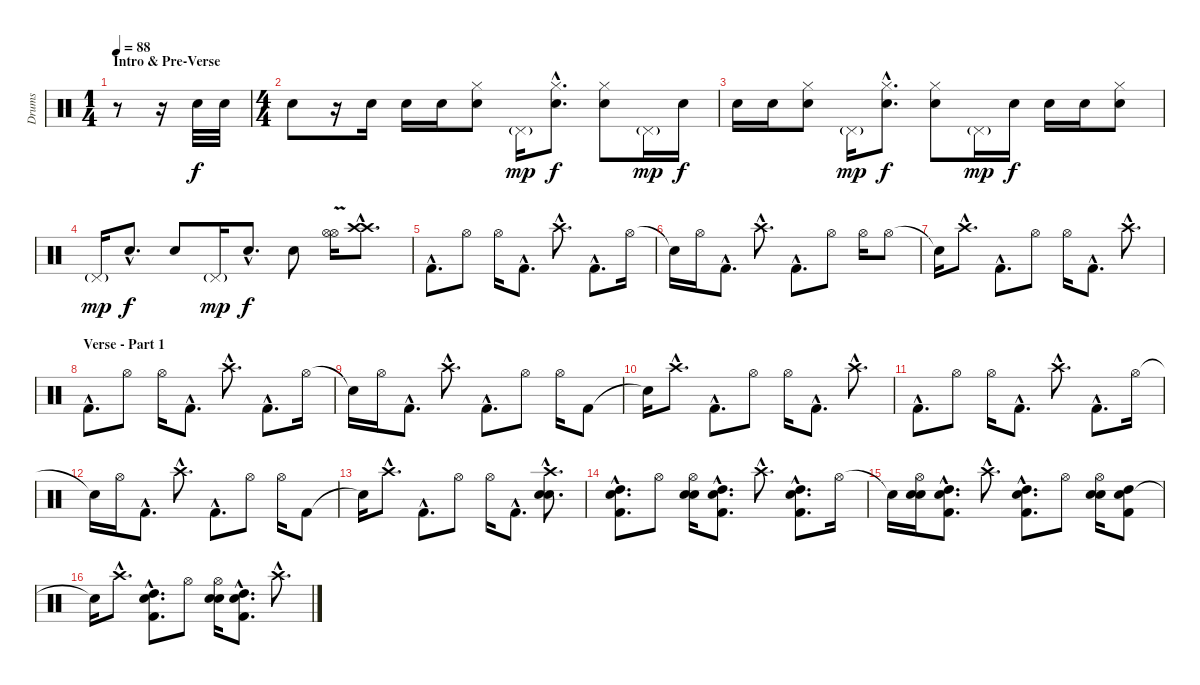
\track ("Drums" "Drums") {instrument percussion}
\staff {score}
\articulation defaults
\ts (1 4)
\section ("" "Intro & Pre-Verse")
\tempo 88
\clef neutral
\ks c
r.8{dy f} r.16 "Electric Snare (hit)".32 "Electric Snare (hit)".32 |
\ts (4 4)
"Electric Snare (hit)".8 r.16 "Electric Snare (hit)".16 "Electric Snare (hit)".16 "Electric Snare (hit)".16 ("Hi-Hat (closed)" "Electric Snare (hit)").8 "Pedal Hi-Hat (hit)"{g}.16{dy mp} ("Hi-Hat (closed)"{hac} "Electric Snare (hit)"{hac}).8{d dy f} ("Hi-Hat (closed)" "Electric Snare (hit)").8 "Pedal Hi-Hat (hit)"{g}.16{dy mp} "Electric Snare (hit)".16{dy f} |
"Electric Snare (hit)".16 "Electric Snare (hit)".16 ("Hi-Hat (closed)" "Electric Snare (hit)").8 "Pedal Hi-Hat (hit)"{g}.16{dy mp} ("Hi-Hat (closed)"{hac} "Electric Snare (hit)"{hac}).8{d dy f} ("Hi-Hat (closed)" "Electric Snare (hit)").8 "Pedal Hi-Hat (hit)"{g}.16{dy mp} "Electric Snare (hit)".16{dy f} "Electric Snare (hit)".16 "Electric Snare (hit)".16 ("Hi-Hat (closed)" "Electric Snare (hit)").8 |
"Pedal Hi-Hat (hit)"{g}.16{dy mp} "Electric Snare (hit)"{hac}.8{d dy f} "Electric Snare (hit)".8 "Pedal Hi-Hat (hit)"{g}.16{dy mp} "Electric Snare (hit)"{hac}.8{d dy f} "Electric Snare (hit)".8 ("Hi-Hat (open)"{v} "Hi-Hat (open)").16 ("Crash high (hit)"{hac} "Crash high (hit)"{hac}).8{d} |
"Kick (hit) 2"{hac}.8{d} "Hi-Hat (open)".8 "Hi-Hat (open)".16 "Kick (hit) 2"{hac}.8{d} "Crash high (hit)"{hac}.8{d} "Kick (hit) 2"{hac}.8{d} "Hi-Hat (open)".16 |
"Snare (hit)"{t}.16 "Hi-Hat (open)".16 "Kick (hit) 2"{hac}.8{d} "Crash high (hit)"{hac}.8{d} "Kick (hit) 2"{hac}.8{d} "Hi-Hat (open)".8 "Hi-Hat (open)".16 "Hi-Hat (open)".8 |
"Snare (hit)"{t}.16 "Crash high (hit)"{hac}.8{d} "Kick (hit) 2"{hac}.8{d} "Hi-Hat (open)".8 "Hi-Hat (open)".16 "Kick (hit) 2"{hac}.8{d} "Crash high (hit)"{hac}.8{d} |
\section ("" "Verse - Part 1")
"Kick (hit) 2"{hac}.8{d} "Hi-Hat (open)".8 "Hi-Hat (open)".16 "Kick (hit) 2"{hac}.8{d} "Crash high (hit)"{hac}.8{d} "Kick (hit) 2"{hac}.8{d} "Hi-Hat (open)".16 |
"Snare (hit)"{t}.16 "Hi-Hat (open)".16 "Kick (hit) 2"{hac}.8{d} "Crash high (hit)"{hac}.8{d} "Kick (hit) 2"{hac}.8{d} "Hi-Hat (open)".8 "Hi-Hat (open)".16 "Kick (hit) 2".8 |
"Snare (hit)"{t}.16 "Crash high (hit)"{hac}.8{d} "Kick (hit) 2"{hac}.8{d} "Hi-Hat (open)".8 "Hi-Hat (open)".16 "Kick (hit) 2"{hac}.8{d} "Crash high (hit)"{hac}.8{d} |
"Kick (hit) 2"{hac}.8{d} "Hi-Hat (open)".8 "Hi-Hat (open)".16 "Kick (hit) 2"{hac}.8{d} "Crash high (hit)"{hac}.8{d} "Kick (hit) 2"{hac}.8{d} "Hi-Hat (open)".16 |
"Snare (hit)"{t}.16 "Hi-Hat (open)".16 "Kick (hit) 2"{hac}.8{d} "Crash high (hit)"{hac}.8{d} "Kick (hit) 2"{hac}.8{d} "Hi-Hat (open)".8 "Hi-Hat (open)".16 "Kick (hit) 2".8 |
"Snare (hit)"{t}.16 "Crash high (hit)"{hac}.8{d} "Kick (hit) 2"{hac}.8{d} "Hi-Hat (open)".8 "Hi-Hat (open)".16 "Kick (hit) 2"{hac}.8{d} ("Crash high (hit)"{hac} "Electric Snare (hit)"{hac} "Electric Snare (hit)"{hac}).8{d} |
("Electric Snare (hit)"{hac} "High Tom (hit)"{hac} "Kick (hit) 2"{hac}).8{d} "Hi-Hat (open)".8 ("Hi-Hat (open)" "Electric Snare (hit)" "Electric Snare (hit)").16 ("Electric Snare (hit)"{hac} "High Tom (hit)"{hac} "Kick (hit) 2"{hac}).8{d} "Crash high (hit)"{hac}.8{d} ("Electric Snare (hit)"{hac} "High Tom (hit)"{hac} "Kick (hit) 2"{hac}).8{d} "Hi-Hat (open)".16 |
"Snare (hit)"{t}.16 ("Hi-Hat (open)" "Electric Snare (hit)" "Electric Snare (hit)").16 ("Electric Snare (hit)"{hac} "High Tom (hit)"{hac} "Kick (hit) 2"{hac}).8{d} "Crash high (hit)"{hac}.8{d} ("Electric Snare (hit)"{hac} "High Tom (hit)"{hac} "Kick (hit) 2"{hac}).8{d} "Hi-Hat (open)".8 ("Hi-Hat (open)" "Electric Snare (hit)" "Electric Snare (hit)").16 ("Electric Snare (hit)" "High Tom (hit)" "Kick (hit) 2").8 |
"Snare (hit)"{t}.16 "Crash high (hit)"{hac}.8{d} ("Electric Snare (hit)"{hac} "High Tom (hit)"{hac} "Kick (hit) 2"{hac}).8{d} "Hi-Hat (open)".8 ("Hi-Hat (open)" "Electric Snare (hit)" "Electric Snare (hit)").16 ("Electric Snare (hit)"{hac} "High Tom (hit)"{hac} "Kick (hit) 2"{hac}).8{d} "Crash high (hit)"{hac}.8{d}
